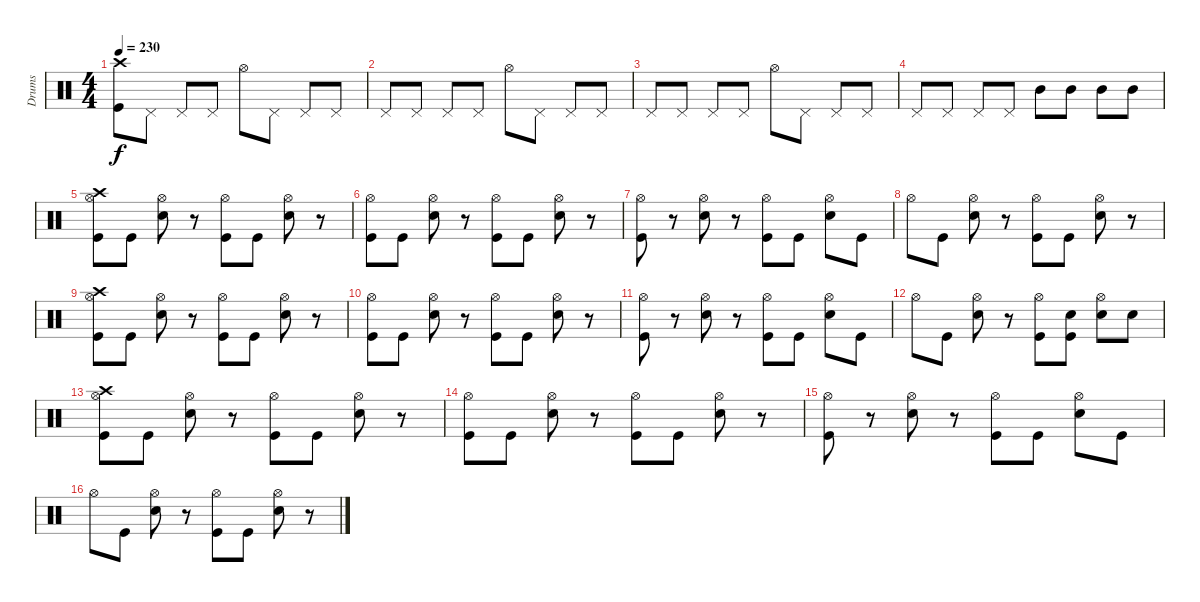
\track ("Drums" "Drums") {instrument percussion}
\staff {score}
\articulation defaults
\ts (4 4)
\tempo 230
\clef neutral
\ks c
("Crash high (hit)" "Kick (hit)").8{dy f} "Pedal Hi-Hat (hit)".8 "Pedal Hi-Hat (hit)".8 "Pedal Hi-Hat (hit)".8 "Hi-Hat (open)".8 "Pedal Hi-Hat (hit)".8 "Pedal Hi-Hat (hit)".8 "Pedal Hi-Hat (hit)".8 |
"Pedal Hi-Hat (hit)".8 "Pedal Hi-Hat (hit)".8 "Pedal Hi-Hat (hit)".8 "Pedal Hi-Hat (hit)".8 "Hi-Hat (open)".8 "Pedal Hi-Hat (hit)".8 "Pedal Hi-Hat (hit)".8 "Pedal Hi-Hat (hit)".8 |
"Pedal Hi-Hat (hit)".8 "Pedal Hi-Hat (hit)".8 "Pedal Hi-Hat (hit)".8 "Pedal Hi-Hat (hit)".8 "Hi-Hat (open)".8 "Pedal Hi-Hat (hit)".8 "Pedal Hi-Hat (hit)".8 "Pedal Hi-Hat (hit)".8 |
"Pedal Hi-Hat (hit)".8 "Pedal Hi-Hat (hit)".8 "Pedal Hi-Hat (hit)".8 "Pedal Hi-Hat (hit)".8 "Mid Tom (hit)".8 "Mid Tom (hit)".8 "Mid Tom (hit)".8 "Mid Tom (hit)".8 |
("Crash high (hit)" "Kick (hit)" "Hi-Hat (open)").8 "Kick (hit)".8 ("Electric Snare (hit)" "Hi-Hat (open)").8 r.8 ("Kick (hit)" "Hi-Hat (open)").8 "Kick (hit)".8 ("Electric Snare (hit)" "Hi-Hat (open)").8 r.8 |
("Kick (hit)" "Hi-Hat (open)").8 "Kick (hit)".8 ("Electric Snare (hit)" "Hi-Hat (open)").8 r.8 ("Kick (hit)" "Hi-Hat (open)").8 "Kick (hit)".8 ("Electric Snare (hit)" "Hi-Hat (open)").8 r.8 |
("Kick (hit)" "Hi-Hat (open)").8 r.8 ("Electric Snare (hit)" "Hi-Hat (open)").8 r.8 ("Kick (hit)" "Hi-Hat (open)").8 "Kick (hit)".8 ("Electric Snare (hit)" "Hi-Hat (open)").8 "Kick (hit)".8 |
"Hi-Hat (open)".8 "Kick (hit)".8 ("Electric Snare (hit)" "Hi-Hat (open)").8 r.8 ("Kick (hit)" "Hi-Hat (open)").8 "Kick (hit)".8 ("Electric Snare (hit)" "Hi-Hat (open)").8 r.8 |
("Crash high (hit)" "Kick (hit)" "Hi-Hat (open)").8 "Kick (hit)".8 ("Electric Snare (hit)" "Hi-Hat (open)").8 r.8 ("Kick (hit)" "Hi-Hat (open)").8 "Kick (hit)".8 ("Electric Snare (hit)" "Hi-Hat (open)").8 r.8 |
("Kick (hit)" "Hi-Hat (open)").8 "Kick (hit)".8 ("Electric Snare (hit)" "Hi-Hat (open)").8 r.8 ("Kick (hit)" "Hi-Hat (open)").8 "Kick (hit)".8 ("Electric Snare (hit)" "Hi-Hat (open)").8 r.8 |
("Kick (hit)" "Hi-Hat (open)").8 r.8 ("Electric Snare (hit)" "Hi-Hat (open)").8 r.8 ("Kick (hit)" "Hi-Hat (open)").8 "Kick (hit)".8 ("Electric Snare (hit)" "Hi-Hat (open)").8 "Kick (hit)".8 |
"Hi-Hat (open)".8 "Kick (hit)".8 ("Electric Snare (hit)" "Hi-Hat (open)").8 r.8 ("Kick (hit)" "Hi-Hat (open)").8 ("Electric Snare (hit)" "Kick (hit)").8 ("Electric Snare (hit)" "Hi-Hat (open)").8 "Electric Snare (hit)".8 |
("Crash high (hit)" "Kick (hit)" "Hi-Hat (open)").8 "Kick (hit)".8 ("Electric Snare (hit)" "Hi-Hat (open)").8 r.8 ("Kick (hit)" "Hi-Hat (open)").8 "Kick (hit)".8 ("Electric Snare (hit)" "Hi-Hat (open)").8 r.8 |
("Kick (hit)" "Hi-Hat (open)").8 "Kick (hit)".8 ("Electric Snare (hit)" "Hi-Hat (open)").8 r.8 ("Kick (hit)" "Hi-Hat (open)").8 "Kick (hit)".8 ("Electric Snare (hit)" "Hi-Hat (open)").8 r.8 |
("Kick (hit)" "Hi-Hat (open)").8 r.8 ("Electric Snare (hit)" "Hi-Hat (open)").8 r.8 ("Kick (hit)" "Hi-Hat (open)").8 "Kick (hit)".8 ("Electric Snare (hit)" "Hi-Hat (open)").8 "Kick (hit)".8 |
"Hi-Hat (open)".8 "Kick (hit)".8 ("Electric Snare (hit)" "Hi-Hat (open)").8 r.8 ("Kick (hit)" "Hi-Hat (open)").8 "Kick (hit)".8 ("Electric Snare (hit)" "Hi-Hat (open)").8 r.8
